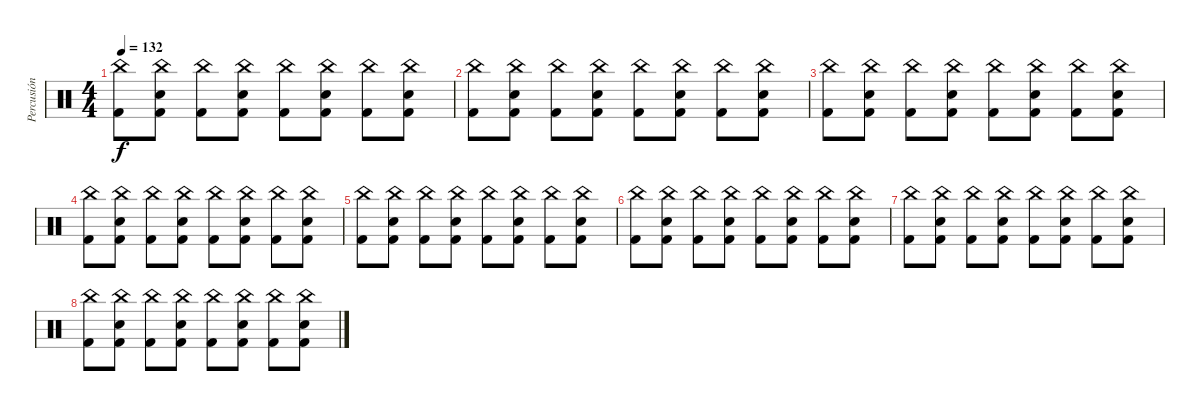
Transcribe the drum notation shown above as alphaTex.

\track ("Percusión" "Percusión") {instrument percussion}
\staff {score}
\articulation defaults
\ts (4 4)
\tempo 132
\clef neutral
\ks c
("China (hit)" "Kick (hit) 2").8{dy f} ("China (hit)" "Electric Snare (hit)" "Kick (hit) 2").8 ("China (hit)" "Kick (hit) 2").8 ("China (hit)" "Electric Snare (hit)" "Kick (hit) 2").8 ("China (hit)" "Kick (hit) 2").8 ("China (hit)" "Electric Snare (hit)" "Kick (hit) 2").8 ("China (hit)" "Kick (hit) 2").8 ("China (hit)" "Electric Snare (hit)" "Kick (hit) 2").8 |
("China (hit)" "Kick (hit) 2").8 ("China (hit)" "Electric Snare (hit)" "Kick (hit) 2").8 ("China (hit)" "Kick (hit) 2").8 ("China (hit)" "Electric Snare (hit)" "Kick (hit) 2").8 ("China (hit)" "Kick (hit) 2").8 ("China (hit)" "Electric Snare (hit)" "Kick (hit) 2").8 ("China (hit)" "Kick (hit) 2").8 ("China (hit)" "Electric Snare (hit)" "Kick (hit) 2").8 |
("China (hit)" "Kick (hit) 2").8 ("China (hit)" "Electric Snare (hit)" "Kick (hit) 2").8 ("China (hit)" "Kick (hit) 2").8 ("China (hit)" "Electric Snare (hit)" "Kick (hit) 2").8 ("China (hit)" "Kick (hit) 2").8 ("China (hit)" "Electric Snare (hit)" "Kick (hit) 2").8 ("China (hit)" "Kick (hit) 2").8 ("China (hit)" "Electric Snare (hit)" "Kick (hit) 2").8 |
("China (hit)" "Kick (hit) 2").8 ("China (hit)" "Electric Snare (hit)" "Kick (hit) 2").8 ("China (hit)" "Kick (hit) 2").8 ("China (hit)" "Electric Snare (hit)" "Kick (hit) 2").8 ("China (hit)" "Kick (hit) 2").8 ("China (hit)" "Electric Snare (hit)" "Kick (hit) 2").8 ("China (hit)" "Kick (hit) 2").8 ("China (hit)" "Electric Snare (hit)" "Kick (hit) 2").8 |
("China (hit)" "Kick (hit) 2").8 ("China (hit)" "Electric Snare (hit)" "Kick (hit) 2").8 ("China (hit)" "Kick (hit) 2").8 ("China (hit)" "Electric Snare (hit)" "Kick (hit) 2").8 ("China (hit)" "Kick (hit) 2").8 ("China (hit)" "Electric Snare (hit)" "Kick (hit) 2").8 ("China (hit)" "Kick (hit) 2").8 ("China (hit)" "Electric Snare (hit)" "Kick (hit) 2").8 |
("China (hit)" "Kick (hit) 2").8 ("China (hit)" "Electric Snare (hit)" "Kick (hit) 2").8 ("China (hit)" "Kick (hit) 2").8 ("China (hit)" "Electric Snare (hit)" "Kick (hit) 2").8 ("China (hit)" "Kick (hit) 2").8 ("China (hit)" "Electric Snare (hit)" "Kick (hit) 2").8 ("China (hit)" "Kick (hit) 2").8 ("China (hit)" "Electric Snare (hit)" "Kick (hit) 2").8 |
("China (hit)" "Kick (hit) 2").8 ("China (hit)" "Electric Snare (hit)" "Kick (hit) 2").8 ("China (hit)" "Kick (hit) 2").8 ("China (hit)" "Electric Snare (hit)" "Kick (hit) 2").8 ("China (hit)" "Kick (hit) 2").8 ("China (hit)" "Electric Snare (hit)" "Kick (hit) 2").8 ("China (hit)" "Kick (hit) 2").8 ("China (hit)" "Electric Snare (hit)" "Kick (hit) 2").8 |
("China (hit)" "Kick (hit) 2").8 ("China (hit)" "Electric Snare (hit)" "Kick (hit) 2").8 ("China (hit)" "Kick (hit) 2").8 ("China (hit)" "Electric Snare (hit)" "Kick (hit) 2").8 ("China (hit)" "Kick (hit) 2").8 ("China (hit)" "Electric Snare (hit)" "Kick (hit) 2").8 ("China (hit)" "Kick (hit) 2").8 ("China (hit)" "Electric Snare (hit)" "Kick (hit) 2").8
